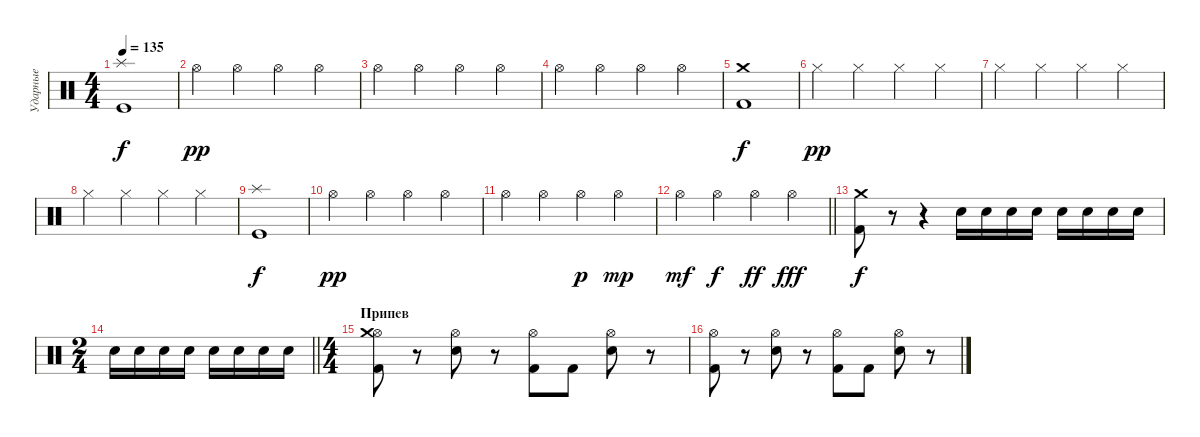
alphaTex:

\track ("Ударные" "Ударные") {instrument percussion}
\staff {score}
\articulation defaults
\ts (4 4)
\tempo 135
\clef neutral
\ks c
("Splash (hit)" "Kick (hit)").1{dy f} |
"Hi-Hat (open)".4{dy pp} "Hi-Hat (open)".4 "Hi-Hat (open)".4 "Hi-Hat (open)".4 |
"Hi-Hat (open)".4 "Hi-Hat (open)".4 "Hi-Hat (open)".4 "Hi-Hat (open)".4 |
"Hi-Hat (open)".4 "Hi-Hat (open)".4 "Hi-Hat (open)".4 "Hi-Hat (open)".4 |
("Crash medium (hit)" "Kick (hit) 2").1{dy f} |
"Hi-Hat (closed)".4{dy pp} "Hi-Hat (closed)".4 "Hi-Hat (closed)".4 "Hi-Hat (closed)".4 |
"Hi-Hat (closed)".4 "Hi-Hat (closed)".4 "Hi-Hat (closed)".4 "Hi-Hat (closed)".4 |
"Hi-Hat (closed)".4 "Hi-Hat (closed)".4 "Hi-Hat (closed)".4 "Hi-Hat (closed)".4 |
("Splash (hit)" "Kick (hit)").1{dy f} |
"Hi-Hat (open)".4{dy pp} "Hi-Hat (open)".4 "Hi-Hat (open)".4 "Hi-Hat (open)".4 |
"Hi-Hat (open)".4 "Hi-Hat (open)".4 "Hi-Hat (open)".4{dy p} "Hi-Hat (open)".4{dy mp} |
\barLineRight lightlight "Hi-Hat (open)".4{dy mf} "Hi-Hat (open)".4{dy f} "Hi-Hat (open)".4{dy ff} "Hi-Hat (open)".4{dy fff}
|
("Kick (hit) 2" "Crash medium (hit)").8{dy f} r.8 r.4 "Electric Snare (hit)".16 "Electric Snare (hit)".16 "Electric Snare (hit)".16 "Electric Snare (hit)".16 "Electric Snare (hit)".16 "Electric Snare (hit)".16 "Electric Snare (hit)".16 "Electric Snare (hit)".16 |
\ts (2 4)
\barLineRight lightlight "Electric Snare (hit)".16 "Electric Snare (hit)".16 "Electric Snare (hit)".16 "Electric Snare (hit)".16 "Electric Snare (hit)".16 "Electric Snare (hit)".16 "Electric Snare (hit)".16 "Electric Snare (hit)".16
|
\ts (4 4)
\section ("" "Припев")
("Hi-Hat (open)" "Crash medium (hit)" "Kick (hit) 2").8 r.8 ("Hi-Hat (open)" "Electric Snare (hit)").8 r.8 ("Hi-Hat (open)" "Kick (hit) 2").8 "Kick (hit) 2".8 ("Hi-Hat (open)" "Electric Snare (hit)").8 r.8 |
("Hi-Hat (open)" "Kick (hit) 2").8 r.8 ("Hi-Hat (open)" "Electric Snare (hit)").8 r.8 ("Hi-Hat (open)" "Kick (hit) 2").8 "Kick (hit) 2".8 ("Hi-Hat (open)" "Electric Snare (hit)").8 r.8
